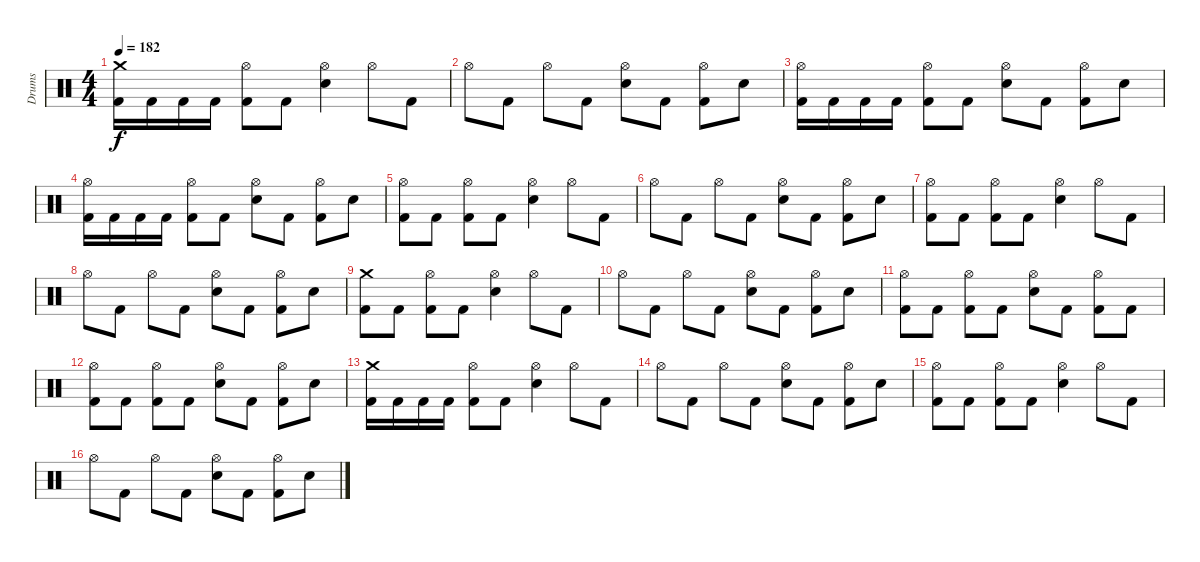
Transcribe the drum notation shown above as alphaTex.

\track ("Drums" "Drums") {instrument percussion}
\staff {score}
\articulation defaults
\ts (4 4)
\tempo 182
\clef neutral
\ks c
("Crash medium (hit)" "Kick (hit) 2").16{dy f} "Kick (hit) 2".16 "Kick (hit) 2".16 "Kick (hit) 2".16 ("Hi-Hat (open)" "Kick (hit) 2").8 "Kick (hit) 2".8 ("Hi-Hat (open)" "Electric Snare (hit)").4 "Hi-Hat (open)".8 "Kick (hit) 2".8 |
"Hi-Hat (open)".8 "Kick (hit) 2".8 "Hi-Hat (open)".8 "Kick (hit) 2".8 ("Hi-Hat (open)" "Electric Snare (hit)").8 "Kick (hit) 2".8 ("Hi-Hat (open)" "Kick (hit) 2").8 "Electric Snare (hit)".8 |
("Hi-Hat (open)" "Kick (hit) 2").16 "Kick (hit) 2".16 "Kick (hit) 2".16 "Kick (hit) 2".16 ("Hi-Hat (open)" "Kick (hit) 2").8 "Kick (hit) 2".8 ("Hi-Hat (open)" "Electric Snare (hit)").8 "Kick (hit) 2".8 ("Hi-Hat (open)" "Kick (hit) 2").8 "Electric Snare (hit)".8 |
("Hi-Hat (open)" "Kick (hit) 2").16 "Kick (hit) 2".16 "Kick (hit) 2".16 "Kick (hit) 2".16 ("Hi-Hat (open)" "Kick (hit) 2").8 "Kick (hit) 2".8 ("Hi-Hat (open)" "Electric Snare (hit)").8 "Kick (hit) 2".8 ("Hi-Hat (open)" "Kick (hit) 2").8 "Electric Snare (hit)".8 |
("Hi-Hat (open)" "Kick (hit) 2").8 "Kick (hit) 2".8 ("Hi-Hat (open)" "Kick (hit) 2").8 "Kick (hit) 2".8 ("Hi-Hat (open)" "Electric Snare (hit)").4 "Hi-Hat (open)".8 "Kick (hit) 2".8 |
"Hi-Hat (open)".8 "Kick (hit) 2".8 "Hi-Hat (open)".8 "Kick (hit) 2".8 ("Hi-Hat (open)" "Electric Snare (hit)").8 "Kick (hit) 2".8 ("Hi-Hat (open)" "Kick (hit) 2").8 "Electric Snare (hit)".8 |
("Hi-Hat (open)" "Kick (hit) 2").8 "Kick (hit) 2".8 ("Hi-Hat (open)" "Kick (hit) 2").8 "Kick (hit) 2".8 ("Hi-Hat (open)" "Electric Snare (hit)").4 "Hi-Hat (open)".8 "Kick (hit) 2".8 |
"Hi-Hat (open)".8 "Kick (hit) 2".8 "Hi-Hat (open)".8 "Kick (hit) 2".8 ("Hi-Hat (open)" "Electric Snare (hit)").8 "Kick (hit) 2".8 ("Hi-Hat (open)" "Kick (hit) 2").8 "Electric Snare (hit)".8 |
("Crash medium (hit)" "Kick (hit) 2").8 "Kick (hit) 2".8 ("Hi-Hat (open)" "Kick (hit) 2").8 "Kick (hit) 2".8 ("Hi-Hat (open)" "Electric Snare (hit)").4 "Hi-Hat (open)".8 "Kick (hit) 2".8 |
"Hi-Hat (open)".8 "Kick (hit) 2".8 "Hi-Hat (open)".8 "Kick (hit) 2".8 ("Hi-Hat (open)" "Electric Snare (hit)").8 "Kick (hit) 2".8 ("Hi-Hat (open)" "Kick (hit) 2").8 "Electric Snare (hit)".8 |
("Hi-Hat (open)" "Kick (hit) 2").8 "Kick (hit) 2".8 ("Hi-Hat (open)" "Kick (hit) 2").8 "Kick (hit) 2".8 ("Hi-Hat (open)" "Electric Snare (hit)").8 "Kick (hit) 2".8 ("Hi-Hat (open)" "Kick (hit) 2").8 "Kick (hit) 2".8 |
("Hi-Hat (open)" "Kick (hit) 2").8 "Kick (hit) 2".8 ("Hi-Hat (open)" "Kick (hit) 2").8 "Kick (hit) 2".8 ("Hi-Hat (open)" "Electric Snare (hit)").8 "Kick (hit) 2".8 ("Hi-Hat (open)" "Kick (hit) 2").8 "Electric Snare (hit)".8 |
("Crash medium (hit)" "Kick (hit) 2").16 "Kick (hit) 2".16 "Kick (hit) 2".16 "Kick (hit) 2".16 ("Hi-Hat (open)" "Kick (hit) 2").8 "Kick (hit) 2".8 ("Hi-Hat (open)" "Electric Snare (hit)").4 "Hi-Hat (open)".8 "Kick (hit) 2".8 |
"Hi-Hat (open)".8 "Kick (hit) 2".8 "Hi-Hat (open)".8 "Kick (hit) 2".8 ("Hi-Hat (open)" "Electric Snare (hit)").8 "Kick (hit) 2".8 ("Hi-Hat (open)" "Kick (hit) 2").8 "Electric Snare (hit)".8 |
("Hi-Hat (open)" "Kick (hit) 2").8 "Kick (hit) 2".8 ("Hi-Hat (open)" "Kick (hit) 2").8 "Kick (hit) 2".8 ("Hi-Hat (open)" "Electric Snare (hit)").4 "Hi-Hat (open)".8 "Kick (hit) 2".8 |
"Hi-Hat (open)".8 "Kick (hit) 2".8 "Hi-Hat (open)".8 "Kick (hit) 2".8 ("Hi-Hat (open)" "Electric Snare (hit)").8 "Kick (hit) 2".8 ("Hi-Hat (open)" "Kick (hit) 2").8 "Electric Snare (hit)".8
